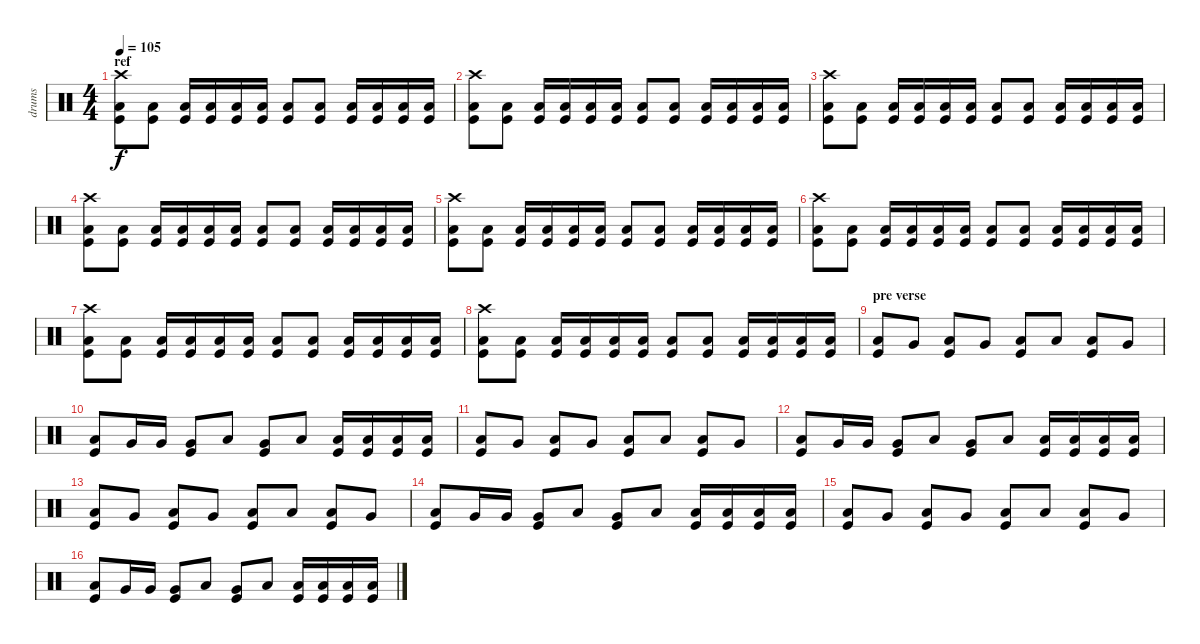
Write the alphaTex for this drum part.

\track ("drums" "drums") {instrument percussion}
\staff {score}
\articulation defaults
\ts (4 4)
\section ("" "ref")
\tempo 105
\clef neutral
\ks c
("Crash high (hit)" "Low Floor Tom (hit)" "Kick (hit)").8{dy f} ("Low Floor Tom (hit)" "Kick (hit)").8 ("Low Floor Tom (hit)" "Kick (hit)").16 ("Low Floor Tom (hit)" "Kick (hit)").16 ("Low Floor Tom (hit)" "Kick (hit)").16 ("Low Floor Tom (hit)" "Kick (hit)").16 ("Low Floor Tom (hit)" "Kick (hit)").8 ("Low Floor Tom (hit)" "Kick (hit)").8 ("Low Floor Tom (hit)" "Kick (hit)").16 ("Low Floor Tom (hit)" "Kick (hit)").16 ("Low Floor Tom (hit)" "Kick (hit)").16 ("Low Floor Tom (hit)" "Kick (hit)").16 |
("Crash high (hit)" "Low Floor Tom (hit)" "Kick (hit)").8 ("Low Floor Tom (hit)" "Kick (hit)").8 ("Low Floor Tom (hit)" "Kick (hit)").16 ("Low Floor Tom (hit)" "Kick (hit)").16 ("Low Floor Tom (hit)" "Kick (hit)").16 ("Low Floor Tom (hit)" "Kick (hit)").16 ("Low Floor Tom (hit)" "Kick (hit)").8 ("Low Floor Tom (hit)" "Kick (hit)").8 ("Low Floor Tom (hit)" "Kick (hit)").16 ("Low Floor Tom (hit)" "Kick (hit)").16 ("Low Floor Tom (hit)" "Kick (hit)").16 ("Low Floor Tom (hit)" "Kick (hit)").16 |
("Crash high (hit)" "Low Floor Tom (hit)" "Kick (hit)").8 ("Low Floor Tom (hit)" "Kick (hit)").8 ("Low Floor Tom (hit)" "Kick (hit)").16 ("Low Floor Tom (hit)" "Kick (hit)").16 ("Low Floor Tom (hit)" "Kick (hit)").16 ("Low Floor Tom (hit)" "Kick (hit)").16 ("Low Floor Tom (hit)" "Kick (hit)").8 ("Low Floor Tom (hit)" "Kick (hit)").8 ("Low Floor Tom (hit)" "Kick (hit)").16 ("Low Floor Tom (hit)" "Kick (hit)").16 ("Low Floor Tom (hit)" "Kick (hit)").16 ("Low Floor Tom (hit)" "Kick (hit)").16 |
("Crash high (hit)" "Low Floor Tom (hit)" "Kick (hit)").8 ("Low Floor Tom (hit)" "Kick (hit)").8 ("Low Floor Tom (hit)" "Kick (hit)").16 ("Low Floor Tom (hit)" "Kick (hit)").16 ("Low Floor Tom (hit)" "Kick (hit)").16 ("Low Floor Tom (hit)" "Kick (hit)").16 ("Low Floor Tom (hit)" "Kick (hit)").8 ("Low Floor Tom (hit)" "Kick (hit)").8 ("Low Floor Tom (hit)" "Kick (hit)").16 ("Low Floor Tom (hit)" "Kick (hit)").16 ("Low Floor Tom (hit)" "Kick (hit)").16 ("Low Floor Tom (hit)" "Kick (hit)").16 |
("Crash high (hit)" "Low Floor Tom (hit)" "Kick (hit)").8 ("Low Floor Tom (hit)" "Kick (hit)").8 ("Low Floor Tom (hit)" "Kick (hit)").16 ("Low Floor Tom (hit)" "Kick (hit)").16 ("Low Floor Tom (hit)" "Kick (hit)").16 ("Low Floor Tom (hit)" "Kick (hit)").16 ("Low Floor Tom (hit)" "Kick (hit)").8 ("Low Floor Tom (hit)" "Kick (hit)").8 ("Low Floor Tom (hit)" "Kick (hit)").16 ("Low Floor Tom (hit)" "Kick (hit)").16 ("Low Floor Tom (hit)" "Kick (hit)").16 ("Low Floor Tom (hit)" "Kick (hit)").16 |
("Crash high (hit)" "Low Floor Tom (hit)" "Kick (hit)").8 ("Low Floor Tom (hit)" "Kick (hit)").8 ("Low Floor Tom (hit)" "Kick (hit)").16 ("Low Floor Tom (hit)" "Kick (hit)").16 ("Low Floor Tom (hit)" "Kick (hit)").16 ("Low Floor Tom (hit)" "Kick (hit)").16 ("Low Floor Tom (hit)" "Kick (hit)").8 ("Low Floor Tom (hit)" "Kick (hit)").8 ("Low Floor Tom (hit)" "Kick (hit)").16 ("Low Floor Tom (hit)" "Kick (hit)").16 ("Low Floor Tom (hit)" "Kick (hit)").16 ("Low Floor Tom (hit)" "Kick (hit)").16 |
("Crash high (hit)" "Low Floor Tom (hit)" "Kick (hit)").8 ("Low Floor Tom (hit)" "Kick (hit)").8 ("Low Floor Tom (hit)" "Kick (hit)").16 ("Low Floor Tom (hit)" "Kick (hit)").16 ("Low Floor Tom (hit)" "Kick (hit)").16 ("Low Floor Tom (hit)" "Kick (hit)").16 ("Low Floor Tom (hit)" "Kick (hit)").8 ("Low Floor Tom (hit)" "Kick (hit)").8 ("Low Floor Tom (hit)" "Kick (hit)").16 ("Low Floor Tom (hit)" "Kick (hit)").16 ("Low Floor Tom (hit)" "Kick (hit)").16 ("Low Floor Tom (hit)" "Kick (hit)").16 |
("Crash high (hit)" "Low Floor Tom (hit)" "Kick (hit)").8 ("Low Floor Tom (hit)" "Kick (hit)").8 ("Low Floor Tom (hit)" "Kick (hit)").16 ("Low Floor Tom (hit)" "Kick (hit)").16 ("Low Floor Tom (hit)" "Kick (hit)").16 ("Low Floor Tom (hit)" "Kick (hit)").16 ("Low Floor Tom (hit)" "Kick (hit)").8 ("Low Floor Tom (hit)" "Kick (hit)").8 ("Low Floor Tom (hit)" "Kick (hit)").16 ("Low Floor Tom (hit)" "Kick (hit)").16 ("Low Floor Tom (hit)" "Kick (hit)").16 ("Low Floor Tom (hit)" "Kick (hit)").16 |
\section ("" "pre verse")
("Kick (hit)" "Low Floor Tom (hit)").8 "Very Low Tom (hit)".8 ("Kick (hit)" "Low Floor Tom (hit)").8 "Very Low Tom (hit)".8 ("Kick (hit)" "Low Floor Tom (hit)").8 "Low Floor Tom (hit)".8 ("Kick (hit)" "Low Floor Tom (hit)").8 "Very Low Tom (hit)".8 |
\section ("" "")
("Low Floor Tom (hit)" "Kick (hit)").8 "Very Low Tom (hit)".16 "Very Low Tom (hit)".16 ("Very Low Tom (hit)" "Kick (hit)").8 "Low Floor Tom (hit)".8 ("Very Low Tom (hit)" "Kick (hit)").8 "Low Floor Tom (hit)".8 ("Low Floor Tom (hit)" "Kick (hit)").16 ("Low Floor Tom (hit)" "Kick (hit)").16 ("Low Floor Tom (hit)" "Kick (hit)").16 ("Low Floor Tom (hit)" "Kick (hit)").16 |
("Kick (hit)" "Low Floor Tom (hit)").8 "Very Low Tom (hit)".8 ("Kick (hit)" "Low Floor Tom (hit)").8 "Very Low Tom (hit)".8 ("Kick (hit)" "Low Floor Tom (hit)").8 "Low Floor Tom (hit)".8 ("Kick (hit)" "Low Floor Tom (hit)").8 "Very Low Tom (hit)".8 |
("Low Floor Tom (hit)" "Kick (hit)").8 "Very Low Tom (hit)".16 "Very Low Tom (hit)".16 ("Very Low Tom (hit)" "Kick (hit)").8 "Low Floor Tom (hit)".8 ("Very Low Tom (hit)" "Kick (hit)").8 "Low Floor Tom (hit)".8 ("Low Floor Tom (hit)" "Kick (hit)").16 ("Low Floor Tom (hit)" "Kick (hit)").16 ("Low Floor Tom (hit)" "Kick (hit)").16 ("Low Floor Tom (hit)" "Kick (hit)").16 |
("Kick (hit)" "Low Floor Tom (hit)").8 "Very Low Tom (hit)".8 ("Kick (hit)" "Low Floor Tom (hit)").8 "Very Low Tom (hit)".8 ("Kick (hit)" "Low Floor Tom (hit)").8 "Low Floor Tom (hit)".8 ("Kick (hit)" "Low Floor Tom (hit)").8 "Very Low Tom (hit)".8 |
("Low Floor Tom (hit)" "Kick (hit)").8 "Very Low Tom (hit)".16 "Very Low Tom (hit)".16 ("Very Low Tom (hit)" "Kick (hit)").8 "Low Floor Tom (hit)".8 ("Very Low Tom (hit)" "Kick (hit)").8 "Low Floor Tom (hit)".8 ("Low Floor Tom (hit)" "Kick (hit)").16 ("Low Floor Tom (hit)" "Kick (hit)").16 ("Low Floor Tom (hit)" "Kick (hit)").16 ("Low Floor Tom (hit)" "Kick (hit)").16 |
("Kick (hit)" "Low Floor Tom (hit)").8 "Very Low Tom (hit)".8 ("Kick (hit)" "Low Floor Tom (hit)").8 "Very Low Tom (hit)".8 ("Kick (hit)" "Low Floor Tom (hit)").8 "Low Floor Tom (hit)".8 ("Kick (hit)" "Low Floor Tom (hit)").8 "Very Low Tom (hit)".8 |
("Low Floor Tom (hit)" "Kick (hit)").8 "Very Low Tom (hit)".16 "Very Low Tom (hit)".16 ("Very Low Tom (hit)" "Kick (hit)").8 "Low Floor Tom (hit)".8 ("Very Low Tom (hit)" "Kick (hit)").8 "Low Floor Tom (hit)".8 ("Low Floor Tom (hit)" "Kick (hit)").16 ("Low Floor Tom (hit)" "Kick (hit)").16 ("Low Floor Tom (hit)" "Kick (hit)").16 ("Low Floor Tom (hit)" "Kick (hit)").16
